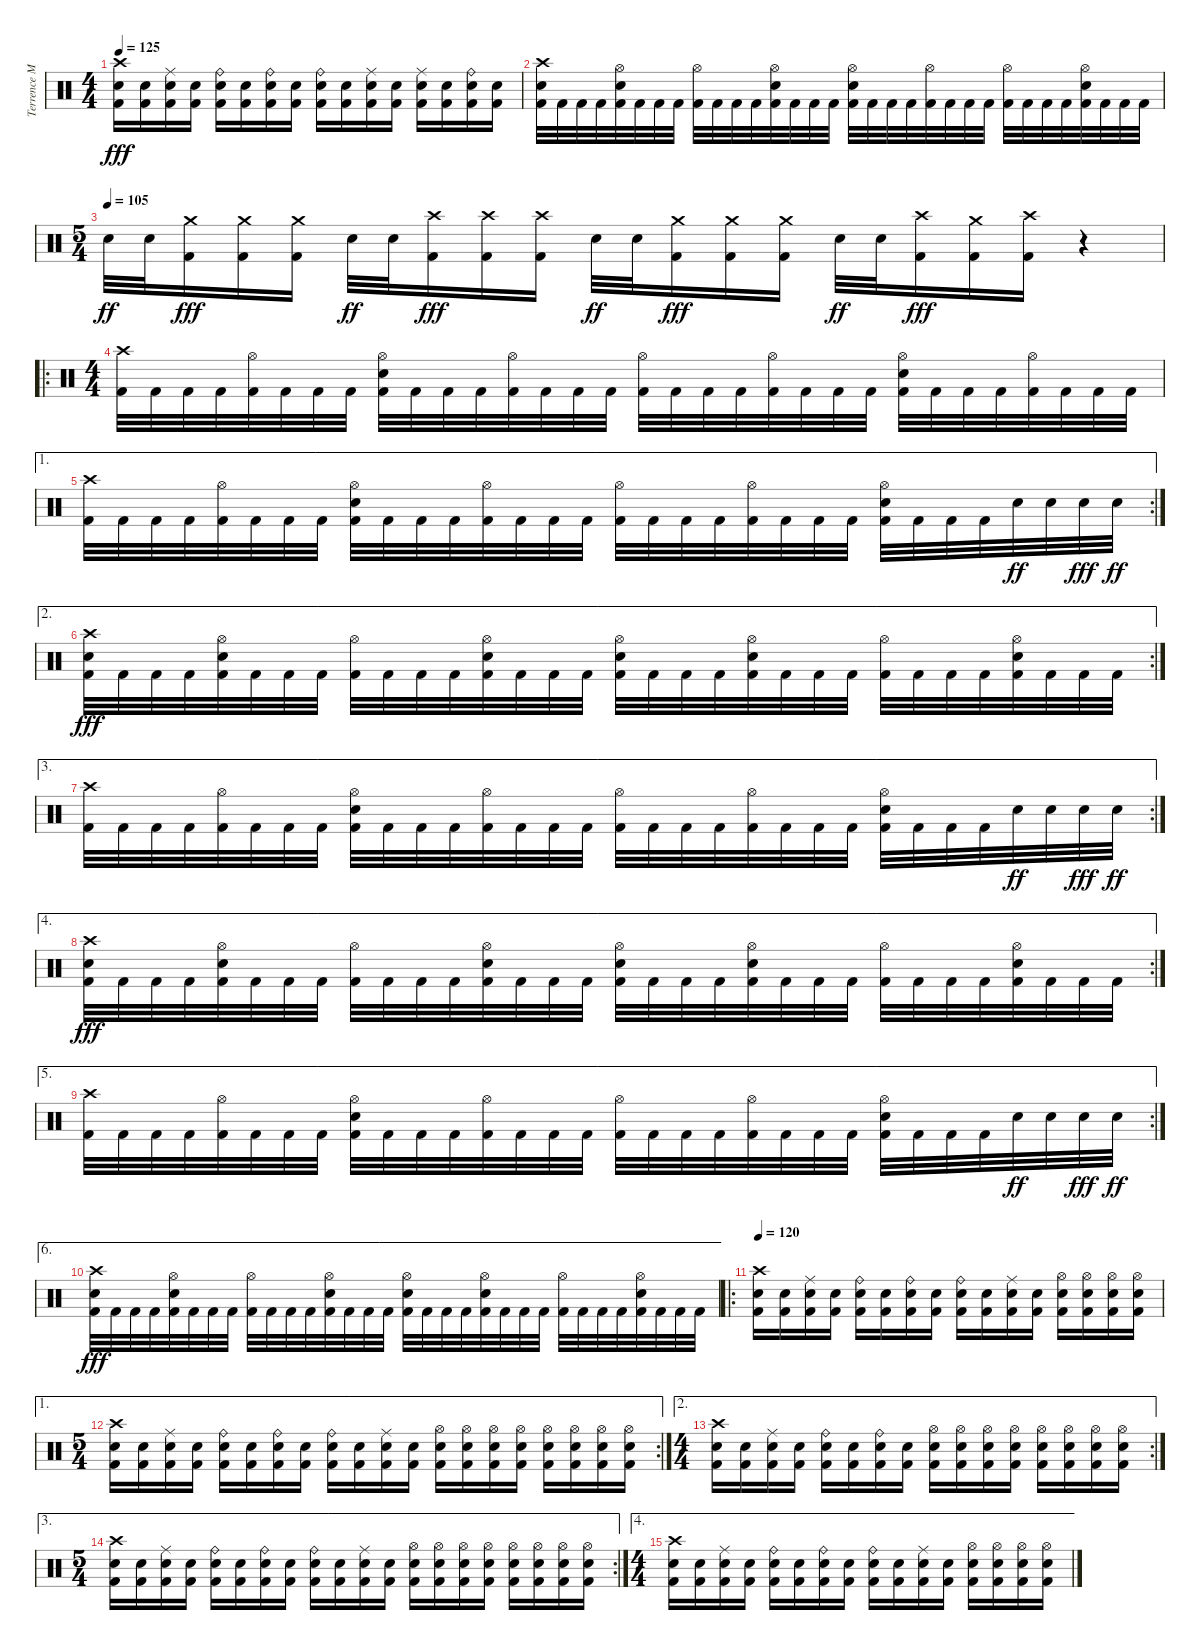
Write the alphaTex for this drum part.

\track ("Terrence Manauis" "Terrence M") {instrument percussion}
\staff {score}
\articulation defaults
\ts (4 4)
\tempo 125
\clef neutral
\ks c
("Crash high (hit)" "Snare (hit) 2" "Kick (hit) 2").16{dy fff} ("Snare (hit) 2" "Kick (hit) 2").16 ("Ride (middle)" "Snare (hit) 2" "Kick (hit) 2").16 ("Snare (hit) 2" "Kick (hit) 2").16 ("Ride (bell)" "Snare (hit) 2" "Kick (hit) 2").16 ("Snare (hit) 2" "Kick (hit) 2").16 ("Ride (bell)" "Snare (hit) 2" "Kick (hit) 2").16 ("Snare (hit) 2" "Kick (hit) 2").16 ("Ride (bell)" "Snare (hit) 2" "Kick (hit) 2").16 ("Snare (hit) 2" "Kick (hit) 2").16 ("Ride (middle)" "Snare (hit) 2" "Kick (hit) 2").16 ("Snare (hit) 2" "Kick (hit) 2").16 ("Ride (middle)" "Snare (hit) 2" "Kick (hit) 2").16 ("Snare (hit) 2" "Kick (hit) 2").16 ("Ride (bell)" "Snare (hit) 2" "Kick (hit) 2").16 ("Snare (hit) 2" "Kick (hit) 2").16 |
("Crash high (hit)" "Snare (hit) 2" "Kick (hit) 2").32 "Kick (hit) 2".32 "Kick (hit) 2".32 "Kick (hit) 2".32 ("Hi-Hat (open)" "Snare (hit) 2" "Kick (hit) 2").32 "Kick (hit) 2".32 "Kick (hit) 2".32 "Kick (hit) 2".32 ("Hi-Hat (open)" "Kick (hit) 2").32 "Kick (hit) 2".32 "Kick (hit) 2".32 "Kick (hit) 2".32 ("Hi-Hat (open)" "Snare (hit) 2" "Kick (hit) 2").32 "Kick (hit) 2".32 "Kick (hit) 2".32 "Kick (hit) 2".32 ("Hi-Hat (open)" "Snare (hit) 2" "Kick (hit) 2").32 "Kick (hit) 2".32 "Kick (hit) 2".32 "Kick (hit) 2".32 ("Hi-Hat (open)" "Kick (hit) 2").32 "Kick (hit) 2".32 "Kick (hit) 2".32 "Kick (hit) 2".32 ("Hi-Hat (open)" "Kick (hit) 2").32 "Kick (hit) 2".32 "Kick (hit) 2".32 "Kick (hit) 2".32 ("Hi-Hat (open)" "Snare (hit) 2" "Kick (hit) 2").32 "Kick (hit) 2".32 "Kick (hit) 2".32 "Kick (hit) 2".32 |
\ts (5 4)
\tempo (105)
"Snare (hit) 2".32{dy ff} "Snare (hit) 2".32 ("Crash medium (hit)" "Kick (hit) 2").16{dy fff} ("Crash medium (hit)" "Kick (hit) 2").16 ("Crash medium (hit)" "Kick (hit) 2").16 "Snare (hit) 2".32{dy ff} "Snare (hit) 2".32 ("Crash high (hit)" "Kick (hit) 2").16{dy fff} ("Crash high (hit)" "Kick (hit) 2").16 ("Crash high (hit)" "Kick (hit) 2").16 "Snare (hit) 2".32{dy ff} "Snare (hit) 2".32 ("Crash medium (hit)" "Kick (hit) 2").16{dy fff} ("Crash medium (hit)" "Kick (hit) 2").16 ("Crash medium (hit)" "Kick (hit) 2").16 "Snare (hit) 2".32{dy ff} "Snare (hit) 2".32 ("Crash high (hit)" "Kick (hit) 2").16{dy fff} ("Crash medium (hit)" "Kick (hit) 2").16 ("Crash high (hit)" "Kick (hit) 2").16 r.4{volume 0} |
\ro
\ts (4 4)
("Crash high (hit)" "Kick (hit) 2").32{volume 13} "Kick (hit) 2".32 "Kick (hit) 2".32 "Kick (hit) 2".32 ("Hi-Hat (open)" "Kick (hit) 2").32 "Kick (hit) 2".32 "Kick (hit) 2".32 "Kick (hit) 2".32 ("Hi-Hat (open)" "Snare (hit) 2" "Kick (hit) 2").32 "Kick (hit) 2".32 "Kick (hit) 2".32 "Kick (hit) 2".32 ("Hi-Hat (open)" "Kick (hit) 2").32 "Kick (hit) 2".32 "Kick (hit) 2".32 "Kick (hit) 2".32 ("Hi-Hat (open)" "Kick (hit) 2").32 "Kick (hit) 2".32 "Kick (hit) 2".32 "Kick (hit) 2".32 ("Hi-Hat (open)" "Kick (hit) 2").32 "Kick (hit) 2".32 "Kick (hit) 2".32 "Kick (hit) 2".32 ("Hi-Hat (open)" "Snare (hit) 2" "Kick (hit) 2").32 "Kick (hit) 2".32 "Kick (hit) 2".32 "Kick (hit) 2".32 ("Hi-Hat (open)" "Kick (hit) 2").32 "Kick (hit) 2".32 "Kick (hit) 2".32 "Kick (hit) 2".32 |
\ae 1
\rc 2
("Crash high (hit)" "Kick (hit) 2").32 "Kick (hit) 2".32 "Kick (hit) 2".32 "Kick (hit) 2".32 ("Hi-Hat (open)" "Kick (hit) 2").32 "Kick (hit) 2".32 "Kick (hit) 2".32 "Kick (hit) 2".32 ("Hi-Hat (open)" "Snare (hit) 2" "Kick (hit) 2").32 "Kick (hit) 2".32 "Kick (hit) 2".32 "Kick (hit) 2".32 ("Hi-Hat (open)" "Kick (hit) 2").32 "Kick (hit) 2".32 "Kick (hit) 2".32 "Kick (hit) 2".32 ("Hi-Hat (open)" "Kick (hit) 2").32 "Kick (hit) 2".32 "Kick (hit) 2".32 "Kick (hit) 2".32 ("Hi-Hat (open)" "Kick (hit) 2").32 "Kick (hit) 2".32 "Kick (hit) 2".32 "Kick (hit) 2".32 ("Hi-Hat (open)" "Snare (hit) 2" "Kick (hit) 2").32 "Kick (hit) 2".32 "Kick (hit) 2".32 "Kick (hit) 2".32 "Snare (hit) 2".32{dy ff} "Snare (hit) 2".32 "Snare (hit) 2".32{dy fff} "Snare (hit) 2".32{dy ff} |
\ae 2
\rc 2
("Crash high (hit)" "Snare (hit) 2" "Kick (hit) 2").32{dy fff} "Kick (hit) 2".32 "Kick (hit) 2".32 "Kick (hit) 2".32 ("Hi-Hat (open)" "Snare (hit) 2" "Kick (hit) 2").32 "Kick (hit) 2".32 "Kick (hit) 2".32 "Kick (hit) 2".32 ("Hi-Hat (open)" "Kick (hit) 2").32 "Kick (hit) 2".32 "Kick (hit) 2".32 "Kick (hit) 2".32 ("Hi-Hat (open)" "Snare (hit) 2" "Kick (hit) 2").32 "Kick (hit) 2".32 "Kick (hit) 2".32 "Kick (hit) 2".32 ("Hi-Hat (open)" "Snare (hit) 2" "Kick (hit) 2").32 "Kick (hit) 2".32 "Kick (hit) 2".32 "Kick (hit) 2".32 ("Hi-Hat (open)" "Snare (hit) 2" "Kick (hit) 2").32 "Kick (hit) 2".32 "Kick (hit) 2".32 "Kick (hit) 2".32 ("Hi-Hat (open)" "Kick (hit) 2").32 "Kick (hit) 2".32 "Kick (hit) 2".32 "Kick (hit) 2".32 ("Hi-Hat (open)" "Snare (hit) 2" "Kick (hit) 2").32 "Kick (hit) 2".32 "Kick (hit) 2".32 "Kick (hit) 2".32 |
\ae 3
\rc 2
("Crash high (hit)" "Kick (hit) 2").32 "Kick (hit) 2".32 "Kick (hit) 2".32 "Kick (hit) 2".32 ("Hi-Hat (open)" "Kick (hit) 2").32 "Kick (hit) 2".32 "Kick (hit) 2".32 "Kick (hit) 2".32 ("Hi-Hat (open)" "Snare (hit) 2" "Kick (hit) 2").32 "Kick (hit) 2".32 "Kick (hit) 2".32 "Kick (hit) 2".32 ("Hi-Hat (open)" "Kick (hit) 2").32 "Kick (hit) 2".32 "Kick (hit) 2".32 "Kick (hit) 2".32 ("Hi-Hat (open)" "Kick (hit) 2").32 "Kick (hit) 2".32 "Kick (hit) 2".32 "Kick (hit) 2".32 ("Hi-Hat (open)" "Kick (hit) 2").32 "Kick (hit) 2".32 "Kick (hit) 2".32 "Kick (hit) 2".32 ("Hi-Hat (open)" "Snare (hit) 2" "Kick (hit) 2").32 "Kick (hit) 2".32 "Kick (hit) 2".32 "Kick (hit) 2".32 "Snare (hit) 2".32{dy ff} "Snare (hit) 2".32 "Snare (hit) 2".32{dy fff} "Snare (hit) 2".32{dy ff} |
\ae 4
\rc 2
("Crash high (hit)" "Snare (hit) 2" "Kick (hit) 2").32{dy fff} "Kick (hit) 2".32 "Kick (hit) 2".32 "Kick (hit) 2".32 ("Hi-Hat (open)" "Snare (hit) 2" "Kick (hit) 2").32 "Kick (hit) 2".32 "Kick (hit) 2".32 "Kick (hit) 2".32 ("Hi-Hat (open)" "Kick (hit) 2").32 "Kick (hit) 2".32 "Kick (hit) 2".32 "Kick (hit) 2".32 ("Hi-Hat (open)" "Snare (hit) 2" "Kick (hit) 2").32 "Kick (hit) 2".32 "Kick (hit) 2".32 "Kick (hit) 2".32 ("Hi-Hat (open)" "Snare (hit) 2" "Kick (hit) 2").32 "Kick (hit) 2".32 "Kick (hit) 2".32 "Kick (hit) 2".32 ("Hi-Hat (open)" "Snare (hit) 2" "Kick (hit) 2").32 "Kick (hit) 2".32 "Kick (hit) 2".32 "Kick (hit) 2".32 ("Hi-Hat (open)" "Kick (hit) 2").32 "Kick (hit) 2".32 "Kick (hit) 2".32 "Kick (hit) 2".32 ("Hi-Hat (open)" "Snare (hit) 2" "Kick (hit) 2").32 "Kick (hit) 2".32 "Kick (hit) 2".32 "Kick (hit) 2".32 |
\ae 5
\rc 2
("Crash high (hit)" "Kick (hit) 2").32 "Kick (hit) 2".32 "Kick (hit) 2".32 "Kick (hit) 2".32 ("Hi-Hat (open)" "Kick (hit) 2").32 "Kick (hit) 2".32 "Kick (hit) 2".32 "Kick (hit) 2".32 ("Hi-Hat (open)" "Snare (hit) 2" "Kick (hit) 2").32 "Kick (hit) 2".32 "Kick (hit) 2".32 "Kick (hit) 2".32 ("Hi-Hat (open)" "Kick (hit) 2").32 "Kick (hit) 2".32 "Kick (hit) 2".32 "Kick (hit) 2".32 ("Hi-Hat (open)" "Kick (hit) 2").32 "Kick (hit) 2".32 "Kick (hit) 2".32 "Kick (hit) 2".32 ("Hi-Hat (open)" "Kick (hit) 2").32 "Kick (hit) 2".32 "Kick (hit) 2".32 "Kick (hit) 2".32 ("Hi-Hat (open)" "Snare (hit) 2" "Kick (hit) 2").32 "Kick (hit) 2".32 "Kick (hit) 2".32 "Kick (hit) 2".32 "Snare (hit) 2".32{dy ff} "Snare (hit) 2".32 "Snare (hit) 2".32{dy fff} "Snare (hit) 2".32{dy ff} |
\ae 6
("Crash high (hit)" "Snare (hit) 2" "Kick (hit) 2").32{dy fff} "Kick (hit) 2".32 "Kick (hit) 2".32 "Kick (hit) 2".32 ("Hi-Hat (open)" "Snare (hit) 2" "Kick (hit) 2").32 "Kick (hit) 2".32 "Kick (hit) 2".32 "Kick (hit) 2".32 ("Hi-Hat (open)" "Kick (hit) 2").32 "Kick (hit) 2".32 "Kick (hit) 2".32 "Kick (hit) 2".32 ("Hi-Hat (open)" "Snare (hit) 2" "Kick (hit) 2").32 "Kick (hit) 2".32 "Kick (hit) 2".32 "Kick (hit) 2".32 ("Hi-Hat (open)" "Snare (hit) 2" "Kick (hit) 2").32 "Kick (hit) 2".32 "Kick (hit) 2".32 "Kick (hit) 2".32 ("Hi-Hat (open)" "Snare (hit) 2" "Kick (hit) 2").32 "Kick (hit) 2".32 "Kick (hit) 2".32 "Kick (hit) 2".32 ("Hi-Hat (open)" "Kick (hit) 2").32 "Kick (hit) 2".32 "Kick (hit) 2".32 "Kick (hit) 2".32 ("Hi-Hat (open)" "Snare (hit) 2" "Kick (hit) 2").32 "Kick (hit) 2".32 "Kick (hit) 2".32 "Kick (hit) 2".32 |
\ro
\tempo 120
("Crash high (hit)" "Snare (hit) 2" "Kick (hit) 2").16 ("Snare (hit) 2" "Kick (hit) 2").16 ("Ride (middle)" "Snare (hit) 2" "Kick (hit) 2").16 ("Snare (hit) 2" "Kick (hit) 2").16 ("Ride (bell)" "Snare (hit) 2" "Kick (hit) 2").16 ("Snare (hit) 2" "Kick (hit) 2").16 ("Ride (bell)" "Snare (hit) 2" "Kick (hit) 2").16 ("Snare (hit) 2" "Kick (hit) 2").16 ("Ride (bell)" "Snare (hit) 2" "Kick (hit) 2").16 ("Snare (hit) 2" "Kick (hit) 2").16 ("Ride (middle)" "Snare (hit) 2" "Kick (hit) 2").16 ("Snare (hit) 2" "Kick (hit) 2").16 ("Hi-Hat (open)" "Snare (hit) 2" "Kick (hit) 2").16 ("Hi-Hat (open)" "Snare (hit) 2" "Kick (hit) 2").16 ("Hi-Hat (open)" "Snare (hit) 2" "Kick (hit) 2").16 ("Hi-Hat (open)" "Snare (hit) 2" "Kick (hit) 2").16 |
\ae 1
\rc 2
\ts (5 4)
("Crash high (hit)" "Snare (hit) 2" "Kick (hit) 2").16 ("Snare (hit) 2" "Kick (hit) 2").16 ("Ride (middle)" "Snare (hit) 2" "Kick (hit) 2").16 ("Snare (hit) 2" "Kick (hit) 2").16 ("Ride (bell)" "Snare (hit) 2" "Kick (hit) 2").16 ("Snare (hit) 2" "Kick (hit) 2").16 ("Ride (bell)" "Snare (hit) 2" "Kick (hit) 2").16 ("Snare (hit) 2" "Kick (hit) 2").16 ("Ride (bell)" "Snare (hit) 2" "Kick (hit) 2").16 ("Snare (hit) 2" "Kick (hit) 2").16 ("Ride (middle)" "Snare (hit) 2" "Kick (hit) 2").16 ("Snare (hit) 2" "Kick (hit) 2").16 ("Hi-Hat (open)" "Snare (hit) 2" "Kick (hit) 2").16 ("Hi-Hat (open)" "Snare (hit) 2" "Kick (hit) 2").16 ("Hi-Hat (open)" "Snare (hit) 2" "Kick (hit) 2").16 ("Hi-Hat (open)" "Snare (hit) 2" "Kick (hit) 2").16 ("Hi-Hat (open)" "Snare (hit) 2" "Kick (hit) 2").16 ("Hi-Hat (open)" "Snare (hit) 2" "Kick (hit) 2").16 ("Hi-Hat (open)" "Snare (hit) 2" "Kick (hit) 2").16 ("Hi-Hat (open)" "Snare (hit) 2" "Kick (hit) 2").16 |
\ae 2
\rc 2
\ts (4 4)
("Crash high (hit)" "Snare (hit) 2" "Kick (hit) 2").16 ("Snare (hit) 2" "Kick (hit) 2").16 ("Ride (middle)" "Snare (hit) 2" "Kick (hit) 2").16 ("Snare (hit) 2" "Kick (hit) 2").16 ("Ride (bell)" "Snare (hit) 2" "Kick (hit) 2").16 ("Snare (hit) 2" "Kick (hit) 2").16 ("Ride (bell)" "Snare (hit) 2" "Kick (hit) 2").16 ("Snare (hit) 2" "Kick (hit) 2").16 ("Hi-Hat (open)" "Snare (hit) 2" "Kick (hit) 2").16 ("Hi-Hat (open)" "Snare (hit) 2" "Kick (hit) 2").16 ("Hi-Hat (open)" "Snare (hit) 2" "Kick (hit) 2").16 ("Hi-Hat (open)" "Snare (hit) 2" "Kick (hit) 2").16 ("Hi-Hat (open)" "Snare (hit) 2" "Kick (hit) 2").16 ("Hi-Hat (open)" "Snare (hit) 2" "Kick (hit) 2").16 ("Hi-Hat (open)" "Snare (hit) 2" "Kick (hit) 2").16 ("Hi-Hat (open)" "Snare (hit) 2" "Kick (hit) 2").16 |
\ae 3
\rc 2
\ts (5 4)
("Crash high (hit)" "Snare (hit) 2" "Kick (hit) 2").16 ("Snare (hit) 2" "Kick (hit) 2").16 ("Ride (middle)" "Snare (hit) 2" "Kick (hit) 2").16 ("Snare (hit) 2" "Kick (hit) 2").16 ("Ride (bell)" "Snare (hit) 2" "Kick (hit) 2").16 ("Snare (hit) 2" "Kick (hit) 2").16 ("Ride (bell)" "Snare (hit) 2" "Kick (hit) 2").16 ("Snare (hit) 2" "Kick (hit) 2").16 ("Ride (bell)" "Snare (hit) 2" "Kick (hit) 2").16 ("Snare (hit) 2" "Kick (hit) 2").16 ("Ride (middle)" "Snare (hit) 2" "Kick (hit) 2").16 ("Snare (hit) 2" "Kick (hit) 2").16 ("Hi-Hat (open)" "Snare (hit) 2" "Kick (hit) 2").16 ("Hi-Hat (open)" "Snare (hit) 2" "Kick (hit) 2").16 ("Hi-Hat (open)" "Snare (hit) 2" "Kick (hit) 2").16 ("Hi-Hat (open)" "Snare (hit) 2" "Kick (hit) 2").16 ("Hi-Hat (open)" "Snare (hit) 2" "Kick (hit) 2").16 ("Hi-Hat (open)" "Snare (hit) 2" "Kick (hit) 2").16 ("Hi-Hat (open)" "Snare (hit) 2" "Kick (hit) 2").16 ("Hi-Hat (open)" "Snare (hit) 2" "Kick (hit) 2").16 |
\ae 4
\ts (4 4)
("Crash high (hit)" "Snare (hit) 2" "Kick (hit) 2").16 ("Snare (hit) 2" "Kick (hit) 2").16 ("Ride (middle)" "Snare (hit) 2" "Kick (hit) 2").16 ("Snare (hit) 2" "Kick (hit) 2").16 ("Ride (bell)" "Snare (hit) 2" "Kick (hit) 2").16 ("Snare (hit) 2" "Kick (hit) 2").16 ("Ride (bell)" "Snare (hit) 2" "Kick (hit) 2").16 ("Snare (hit) 2" "Kick (hit) 2").16 ("Ride (bell)" "Snare (hit) 2" "Kick (hit) 2").16 ("Snare (hit) 2" "Kick (hit) 2").16 ("Ride (middle)" "Snare (hit) 2" "Kick (hit) 2").16 ("Snare (hit) 2" "Kick (hit) 2").16 ("Hi-Hat (open)" "Snare (hit) 2" "Kick (hit) 2").16 ("Hi-Hat (open)" "Snare (hit) 2" "Kick (hit) 2").16 ("Hi-Hat (open)" "Snare (hit) 2" "Kick (hit) 2").16 ("Hi-Hat (open)" "Snare (hit) 2" "Kick (hit) 2").16
